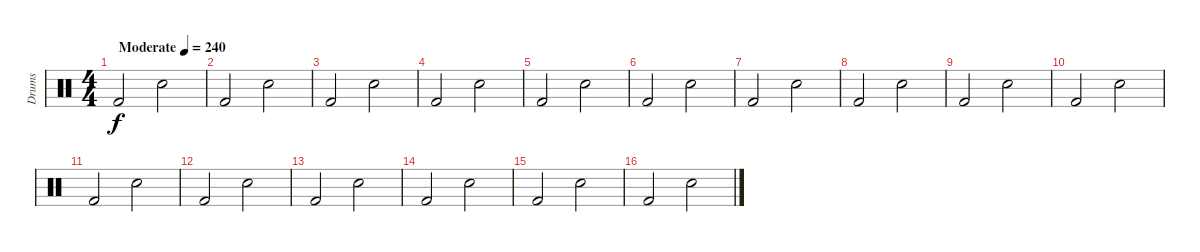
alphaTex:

\track ("Drums" "Drums") {instrument percussion}
\staff {score}
\articulation defaults
\ts (4 4)
\tempo (240 "Moderate")
\clef neutral
\ks c "Kick (hit) 2".2{dy f} "Snare (hit) 2".2
|
"Kick (hit) 2".2 "Snare (hit) 2".2 |
"Kick (hit) 2".2 "Snare (hit) 2".2 |
"Kick (hit) 2".2 "Snare (hit) 2".2 |
"Kick (hit) 2".2 "Snare (hit) 2".2 |
"Kick (hit) 2".2 "Snare (hit) 2".2 |
"Kick (hit) 2".2 "Snare (hit) 2".2 |
"Kick (hit) 2".2 "Snare (hit) 2".2 |
"Kick (hit) 2".2 "Snare (hit) 2".2 |
"Kick (hit) 2".2 "Snare (hit) 2".2 |
"Kick (hit) 2".2 "Snare (hit) 2".2 |
"Kick (hit) 2".2 "Snare (hit) 2".2 |
"Kick (hit) 2".2 "Snare (hit) 2".2 |
"Kick (hit) 2".2 "Snare (hit) 2".2 |
"Kick (hit) 2".2 "Snare (hit) 2".2 |
"Kick (hit) 2".2 "Snare (hit) 2".2
